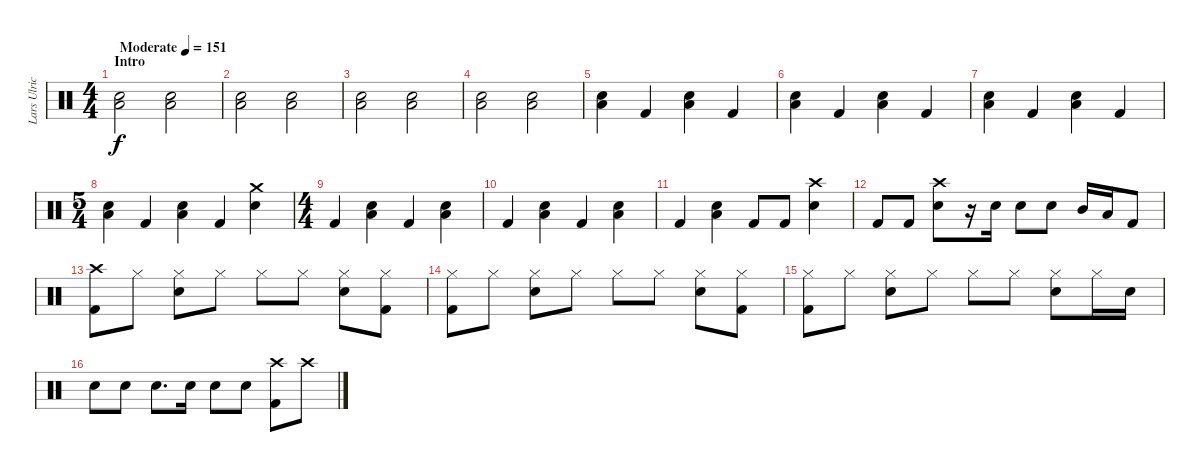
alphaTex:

\track ("Lars Ulrich" "Lars Ulric") {instrument percussion}
\staff {score}
\articulation defaults
\ts (4 4)
\section ("" "Intro")
\tempo (151 "Moderate")
\clef neutral
\ks c
("Snare (hit) 2" "Low Floor Tom (hit)").2{dy f} ("Snare (hit) 2" "Low Floor Tom (hit)").2 |
("Snare (hit) 2" "Low Floor Tom (hit)").2 ("Snare (hit) 2" "Low Floor Tom (hit)").2 |
("Snare (hit) 2" "Low Floor Tom (hit)").2 ("Snare (hit) 2" "Low Floor Tom (hit)").2 |
("Snare (hit) 2" "Low Floor Tom (hit)").2 ("Snare (hit) 2" "Low Floor Tom (hit)").2 |
("Snare (hit) 2" "Low Floor Tom (hit)").4 "Kick (hit) 2".4 ("Snare (hit) 2" "Low Floor Tom (hit)").4 "Kick (hit) 2".4 |
("Snare (hit) 2" "Low Floor Tom (hit)").4 "Kick (hit) 2".4 ("Snare (hit) 2" "Low Floor Tom (hit)").4 "Kick (hit) 2".4 |
("Snare (hit) 2" "Low Floor Tom (hit)").4 "Kick (hit) 2".4 ("Snare (hit) 2" "Low Floor Tom (hit)").4 "Kick (hit) 2".4 |
\ts (5 4)
("Snare (hit) 2" "Low Floor Tom (hit)").4 "Kick (hit) 2".4 ("Snare (hit) 2" "Low Floor Tom (hit)").4 "Kick (hit) 2".4 ("Crash medium (hit)" "Snare (hit) 2").4 |
\ts (4 4)
"Kick (hit) 2".4 ("Low Floor Tom (hit)" "Snare (hit) 2").4 "Kick (hit) 2".4 ("Low Floor Tom (hit)" "Snare (hit) 2").4 |
"Kick (hit) 2".4 ("Low Floor Tom (hit)" "Snare (hit) 2").4 "Kick (hit) 2".4 ("Low Floor Tom (hit)" "Snare (hit) 2").4 |
"Kick (hit) 2".4 ("Low Floor Tom (hit)" "Snare (hit) 2").4 "Kick (hit) 2".8 "Kick (hit) 2".8 ("Crash high (hit)" "Snare (hit) 2").4 |
"Kick (hit) 2".8 "Kick (hit) 2".8 ("Crash high (hit)" "Snare (hit) 2").8 r.16 "Snare (hit) 2".16 "Snare (hit) 2".8 "Snare (hit) 2".8 "Mid Tom (hit)".16 "Low Tom (hit)".16 "Kick (hit) 2".8 |
("Crash high (hit)" "Kick (hit) 2").8 "Hi-Hat (closed)".8 ("Hi-Hat (closed)" "Snare (hit) 2").8 "Hi-Hat (closed)".8 "Hi-Hat (closed)".8 "Hi-Hat (closed)".8 ("Hi-Hat (closed)" "Snare (hit) 2").8 ("Hi-Hat (closed)" "Kick (hit) 2").8 |
("Hi-Hat (closed)" "Kick (hit) 2").8 "Hi-Hat (closed)".8 ("Hi-Hat (closed)" "Snare (hit) 2").8 "Hi-Hat (closed)".8 "Hi-Hat (closed)".8 "Hi-Hat (closed)".8 ("Hi-Hat (closed)" "Snare (hit) 2").8 ("Hi-Hat (closed)" "Kick (hit) 2").8 |
("Hi-Hat (closed)" "Kick (hit) 2").8 "Hi-Hat (closed)".8 ("Hi-Hat (closed)" "Snare (hit) 2").8 "Hi-Hat (closed)".8 "Hi-Hat (closed)".8 "Hi-Hat (closed)".8 ("Hi-Hat (closed)" "Snare (hit) 2").8 "Hi-Hat (closed)".16 "Snare (hit) 2".16 |
"Snare (hit) 2".8 "Snare (hit) 2".8 "Snare (hit) 2".8{d} "Snare (hit) 2".16 "Snare (hit) 2".8 "Snare (hit) 2".8 ("Crash high (hit)" "Kick (hit) 2").8 "Crash high (hit)".8{volume 0}
